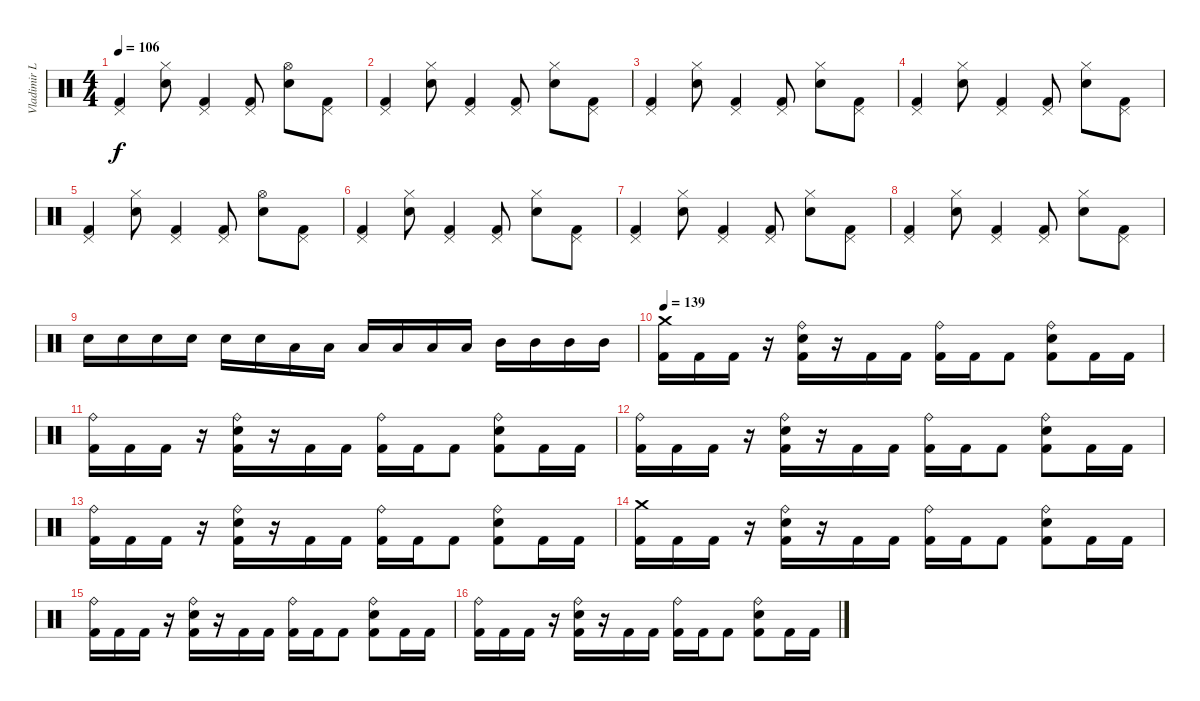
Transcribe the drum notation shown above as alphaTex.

\track ("Vladimir L." "Vladimir L") {solo instrument percussion}
\staff {score}
\articulation defaults
\ts (4 4)
\tempo 106
\clef neutral
\ks c
("Kick (hit) 2" "Pedal Hi-Hat (hit)").4{dy f} ("Electric Snare (hit)" "Hi-Hat (closed)").8 ("Kick (hit) 2" "Pedal Hi-Hat (hit)").4 ("Kick (hit) 2" "Pedal Hi-Hat (hit)").8 ("Electric Snare (hit)" "Hi-Hat (open)").8 ("Kick (hit) 2" "Pedal Hi-Hat (hit)").8 |
("Kick (hit) 2" "Pedal Hi-Hat (hit)").4 ("Electric Snare (hit)" "Hi-Hat (closed)").8 ("Kick (hit) 2" "Pedal Hi-Hat (hit)").4 ("Kick (hit) 2" "Pedal Hi-Hat (hit)").8 ("Electric Snare (hit)" "Hi-Hat (closed)").8 ("Kick (hit) 2" "Pedal Hi-Hat (hit)").8 |
("Kick (hit) 2" "Pedal Hi-Hat (hit)").4 ("Electric Snare (hit)" "Hi-Hat (closed)").8 ("Kick (hit) 2" "Pedal Hi-Hat (hit)").4 ("Kick (hit) 2" "Pedal Hi-Hat (hit)").8 ("Electric Snare (hit)" "Hi-Hat (closed)").8 ("Kick (hit) 2" "Pedal Hi-Hat (hit)").8 |
("Kick (hit) 2" "Pedal Hi-Hat (hit)").4 ("Electric Snare (hit)" "Hi-Hat (closed)").8 ("Kick (hit) 2" "Pedal Hi-Hat (hit)").4 ("Kick (hit) 2" "Pedal Hi-Hat (hit)").8 ("Electric Snare (hit)" "Hi-Hat (closed)").8 ("Kick (hit) 2" "Pedal Hi-Hat (hit)").8 |
("Kick (hit) 2" "Pedal Hi-Hat (hit)").4 ("Electric Snare (hit)" "Hi-Hat (closed)").8 ("Kick (hit) 2" "Pedal Hi-Hat (hit)").4 ("Kick (hit) 2" "Pedal Hi-Hat (hit)").8 ("Electric Snare (hit)" "Hi-Hat (open)").8 ("Kick (hit) 2" "Pedal Hi-Hat (hit)").8 |
("Kick (hit) 2" "Pedal Hi-Hat (hit)").4 ("Electric Snare (hit)" "Hi-Hat (closed)").8 ("Kick (hit) 2" "Pedal Hi-Hat (hit)").4 ("Kick (hit) 2" "Pedal Hi-Hat (hit)").8 ("Electric Snare (hit)" "Hi-Hat (closed)").8 ("Kick (hit) 2" "Pedal Hi-Hat (hit)").8 |
("Kick (hit) 2" "Pedal Hi-Hat (hit)").4 ("Electric Snare (hit)" "Hi-Hat (closed)").8 ("Kick (hit) 2" "Pedal Hi-Hat (hit)").4 ("Kick (hit) 2" "Pedal Hi-Hat (hit)").8 ("Electric Snare (hit)" "Hi-Hat (closed)").8 ("Kick (hit) 2" "Pedal Hi-Hat (hit)").8 |
("Kick (hit) 2" "Pedal Hi-Hat (hit)").4 ("Electric Snare (hit)" "Hi-Hat (closed)").8 ("Kick (hit) 2" "Pedal Hi-Hat (hit)").4 ("Kick (hit) 2" "Pedal Hi-Hat (hit)").8 ("Electric Snare (hit)" "Hi-Hat (closed)").8 ("Kick (hit) 2" "Pedal Hi-Hat (hit)").8 |
"Electric Snare (hit)".16 "Electric Snare (hit)".16 "Electric Snare (hit)".16 "Electric Snare (hit)".16 "Electric Snare (hit)".16 "Electric Snare (hit)".16 "Low Tom (hit)".16 "Low Tom (hit)".16 "Low Tom (hit)".16 "Low Tom (hit)".16 "Low Tom (hit)".16 "Low Tom (hit)".16 "Mid Tom (hit)".16 "Mid Tom (hit)".16 "Mid Tom (hit)".16 "Mid Tom (hit)".16 |
\tempo 139
("Kick (hit) 2" "Crash medium (hit)").16 "Kick (hit) 2".16 "Kick (hit) 2".16 r.16 ("Kick (hit) 2" "Electric Snare (hit)" "Ride (bell)").16 r.16 "Kick (hit) 2".16 "Kick (hit) 2".16 ("Kick (hit) 2" "Ride (bell)").16 "Kick (hit) 2".16 "Kick (hit) 2".8 ("Kick (hit) 2" "Electric Snare (hit)" "Ride (bell)").8 "Kick (hit) 2".16 "Kick (hit) 2".16 |
("Kick (hit) 2" "Ride (bell)").16 "Kick (hit) 2".16 "Kick (hit) 2".16 r.16 ("Kick (hit) 2" "Electric Snare (hit)" "Ride (bell)").16 r.16 "Kick (hit) 2".16 "Kick (hit) 2".16 ("Kick (hit) 2" "Ride (bell)").16 "Kick (hit) 2".16 "Kick (hit) 2".8 ("Kick (hit) 2" "Electric Snare (hit)" "Ride (bell)").8 "Kick (hit) 2".16 "Kick (hit) 2".16 |
("Kick (hit) 2" "Ride (bell)").16 "Kick (hit) 2".16 "Kick (hit) 2".16 r.16 ("Kick (hit) 2" "Electric Snare (hit)" "Ride (bell)").16 r.16 "Kick (hit) 2".16 "Kick (hit) 2".16 ("Kick (hit) 2" "Ride (bell)").16 "Kick (hit) 2".16 "Kick (hit) 2".8 ("Kick (hit) 2" "Electric Snare (hit)" "Ride (bell)").8 "Kick (hit) 2".16 "Kick (hit) 2".16 |
("Kick (hit) 2" "Ride (bell)").16 "Kick (hit) 2".16 "Kick (hit) 2".16 r.16 ("Kick (hit) 2" "Electric Snare (hit)" "Ride (bell)").16 r.16 "Kick (hit) 2".16 "Kick (hit) 2".16 ("Kick (hit) 2" "Ride (bell)").16 "Kick (hit) 2".16 "Kick (hit) 2".8 ("Kick (hit) 2" "Electric Snare (hit)" "Ride (bell)").8 "Kick (hit) 2".16 "Kick (hit) 2".16 |
("Kick (hit) 2" "Crash medium (hit)").16 "Kick (hit) 2".16 "Kick (hit) 2".16 r.16 ("Kick (hit) 2" "Electric Snare (hit)" "Ride (bell)").16 r.16 "Kick (hit) 2".16 "Kick (hit) 2".16 ("Kick (hit) 2" "Ride (bell)").16 "Kick (hit) 2".16 "Kick (hit) 2".8 ("Kick (hit) 2" "Electric Snare (hit)" "Ride (bell)").8 "Kick (hit) 2".16 "Kick (hit) 2".16 |
("Kick (hit) 2" "Ride (bell)").16 "Kick (hit) 2".16 "Kick (hit) 2".16 r.16 ("Kick (hit) 2" "Electric Snare (hit)" "Ride (bell)").16 r.16 "Kick (hit) 2".16 "Kick (hit) 2".16 ("Kick (hit) 2" "Ride (bell)").16 "Kick (hit) 2".16 "Kick (hit) 2".8 ("Kick (hit) 2" "Electric Snare (hit)" "Ride (bell)").8 "Kick (hit) 2".16 "Kick (hit) 2".16 |
("Kick (hit) 2" "Ride (bell)").16 "Kick (hit) 2".16 "Kick (hit) 2".16 r.16 ("Kick (hit) 2" "Electric Snare (hit)" "Ride (bell)").16 r.16 "Kick (hit) 2".16 "Kick (hit) 2".16 ("Kick (hit) 2" "Ride (bell)").16 "Kick (hit) 2".16 "Kick (hit) 2".8 ("Kick (hit) 2" "Electric Snare (hit)" "Ride (bell)").8 "Kick (hit) 2".16 "Kick (hit) 2".16
